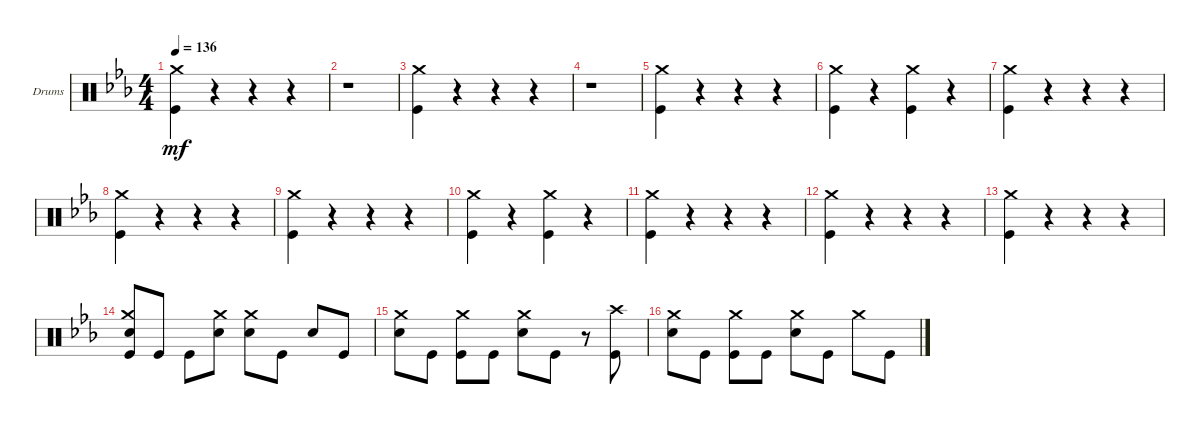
\defaultSystemsLayout 4
\bracketExtendMode groupsimilarinstruments
\firstSystemTrackNameOrientation horizontal
\otherSystemsTrackNameOrientation horizontal
\track ("Drumkit" "Drums") {instrument percussion}
\staff {score}
\articulation defaults
\ts (4 4)
\tempo 136
\clef neutral
\ks cminor
("Kick (hit)" "Crash medium (hit)").4{dy mf} r.4 r.4 r.4 |
r.1 |
("Kick (hit)" "Crash medium (hit)").4 r.4 r.4 r.4 |
r.1 |
("Kick (hit)" "Crash medium (hit)").4 r.4 r.4 r.4 |
("Kick (hit)" "Crash medium (hit)").4 r.4 ("Kick (hit)" "Crash medium (hit)").4 r.4 |
("Kick (hit)" "Crash medium (hit)").4 r.4 r.4 r.4 |
("Kick (hit)" "Crash medium (hit)").4 r.4 r.4 r.4 |
("Kick (hit)" "Crash medium (hit)").4 r.4 r.4 r.4 |
("Kick (hit)" "Crash medium (hit)").4 r.4 ("Kick (hit)" "Crash medium (hit)").4 r.4 |
("Kick (hit)" "Crash medium (hit)").4 r.4 r.4 r.4 |
("Kick (hit)" "Crash medium (hit)").4 r.4 r.4 r.4 |
("Kick (hit)" "Crash medium (hit)").4 r.4 r.4 r.4 |
("Kick (hit)" "Snare (hit) 2" "Crash medium (hit)").8 "Kick (hit)".8 "Kick (hit)".8 ("Snare (hit) 2" "Crash medium (hit)").8 ("Snare (hit) 2" "Crash medium (hit)").8 "Kick (hit)".8 "Snare (hit) 2".8 "Kick (hit)".8 |
("Crash medium (hit)" "Snare (hit) 2").8 "Kick (hit)".8 ("Kick (hit)" "Crash medium (hit)").8 "Kick (hit)".8 ("Snare (hit) 2" "Crash medium (hit)").8 "Kick (hit)".8 r.8 ("Kick (hit)" "Crash high (hit)").8 |
("Crash medium (hit)" "Snare (hit) 2").8 "Kick (hit)".8 ("Kick (hit)" "Crash medium (hit)").8 "Kick (hit)".8 ("Snare (hit) 2" "Crash medium (hit)").8 "Kick (hit)".8 "Crash medium (hit)".8 "Kick (hit)".8
